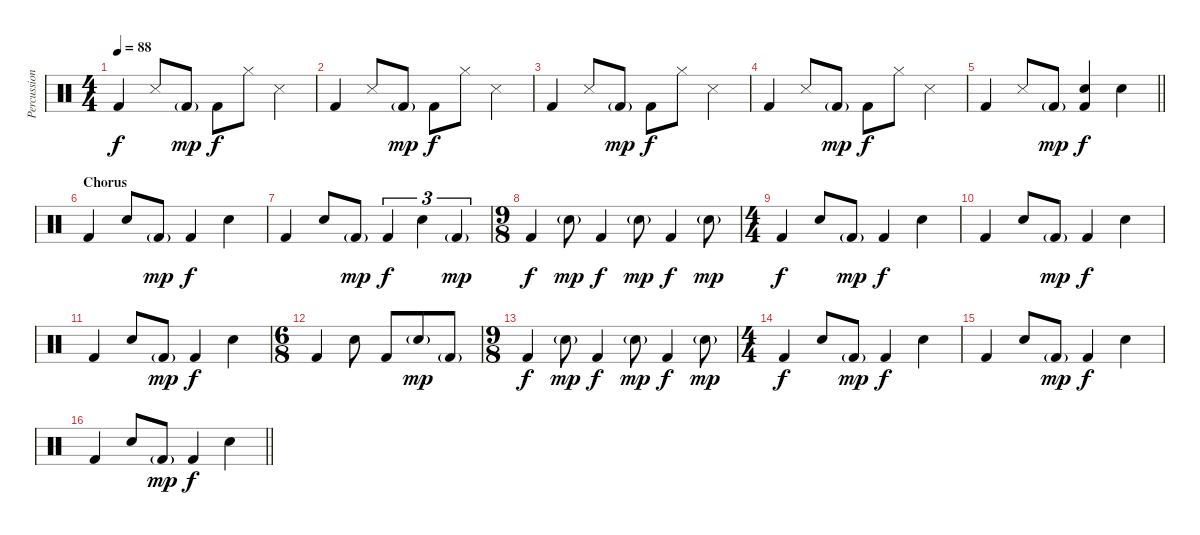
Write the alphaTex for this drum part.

\track ("Percussion" "Percussion") {instrument percussion}
\staff {score}
\articulation defaults
\ts (4 4)
\tempo 88
\clef neutral
\ks c "Kick (hit) 2".4{dy f} "Snare (side stick) 3".8 "Kick (hit) 2"{g}.8{dy mp} "Kick (hit) 2".8{dy f} "Hi-Hat (closed)".8 "Snare (side stick) 3".4
|
"Kick (hit) 2".4 "Snare (side stick) 3".8 "Kick (hit) 2"{g}.8{dy mp} "Kick (hit) 2".8{dy f} "Hi-Hat (closed)".8 "Snare (side stick) 3".4 |
"Kick (hit) 2".4 "Snare (side stick) 3".8 "Kick (hit) 2"{g}.8{dy mp} "Kick (hit) 2".8{dy f} "Hi-Hat (closed)".8 "Snare (side stick) 3".4 |
"Kick (hit) 2".4 "Snare (side stick) 3".8 "Kick (hit) 2"{g}.8{dy mp} "Kick (hit) 2".8{dy f} "Hi-Hat (closed)".8 "Snare (side stick) 3".4 |
\barLineRight lightlight "Kick (hit) 2".4 "Snare (side stick) 3".8 "Kick (hit) 2"{g}.8{dy mp}
("Snare (hit) 2" "Kick (hit) 2").4{dy f} "Snare (hit) 2".4 |
\section ("" "Chorus")
"Kick (hit) 2".4 "Snare (hit) 2".8 "Kick (hit) 2"{g}.8{dy mp} "Kick (hit) 2".4{dy f} "Snare (hit) 2".4 |
"Kick (hit) 2".4 "Snare (hit) 2".8 "Kick (hit) 2"{g}.8{dy mp} "Kick (hit) 2".4{tu (3 2) dy f} "Snare (hit) 2".4{tu (3 2)} "Kick (hit) 2"{g}.4{tu (3 2) dy mp} |
\ts (9 8)
"Kick (hit) 2".4{dy f} "Snare (hit) 2"{g}.8{dy mp} "Kick (hit) 2".4{dy f} "Snare (hit) 2"{g}.8{dy mp} "Kick (hit) 2".4{dy f} "Snare (hit) 2"{g}.8{dy mp} |
\ts (4 4)
"Kick (hit) 2".4{dy f} "Snare (hit) 2".8 "Kick (hit) 2"{g}.8{dy mp} "Kick (hit) 2".4{dy f} "Snare (hit) 2".4 |
"Kick (hit) 2".4 "Snare (hit) 2".8 "Kick (hit) 2"{g}.8{dy mp} "Kick (hit) 2".4{dy f} "Snare (hit) 2".4 |
"Kick (hit) 2".4 "Snare (hit) 2".8 "Kick (hit) 2"{g}.8{dy mp} "Kick (hit) 2".4{dy f} "Snare (hit) 2".4 |
\ts (6 8)
"Kick (hit) 2".4 "Snare (hit) 2".8 "Kick (hit) 2".8 "Snare (hit) 2"{g}.8{dy mp} "Kick (hit) 2"{g}.8 |
\ts (9 8)
"Kick (hit) 2".4{dy f} "Snare (hit) 2"{g}.8{dy mp} "Kick (hit) 2".4{dy f} "Snare (hit) 2"{g}.8{dy mp} "Kick (hit) 2".4{dy f} "Snare (hit) 2"{g}.8{dy mp} |
\ts (4 4)
"Kick (hit) 2".4{dy f} "Snare (hit) 2".8 "Kick (hit) 2"{g}.8{dy mp} "Kick (hit) 2".4{dy f} "Snare (hit) 2".4 |
"Kick (hit) 2".4 "Snare (hit) 2".8 "Kick (hit) 2"{g}.8{dy mp} "Kick (hit) 2".4{dy f} "Snare (hit) 2".4 |
\barLineRight lightlight "Kick (hit) 2".4 "Snare (hit) 2".8 "Kick (hit) 2"{g}.8{dy mp} "Kick (hit) 2".4{dy f} "Snare (hit) 2".4
